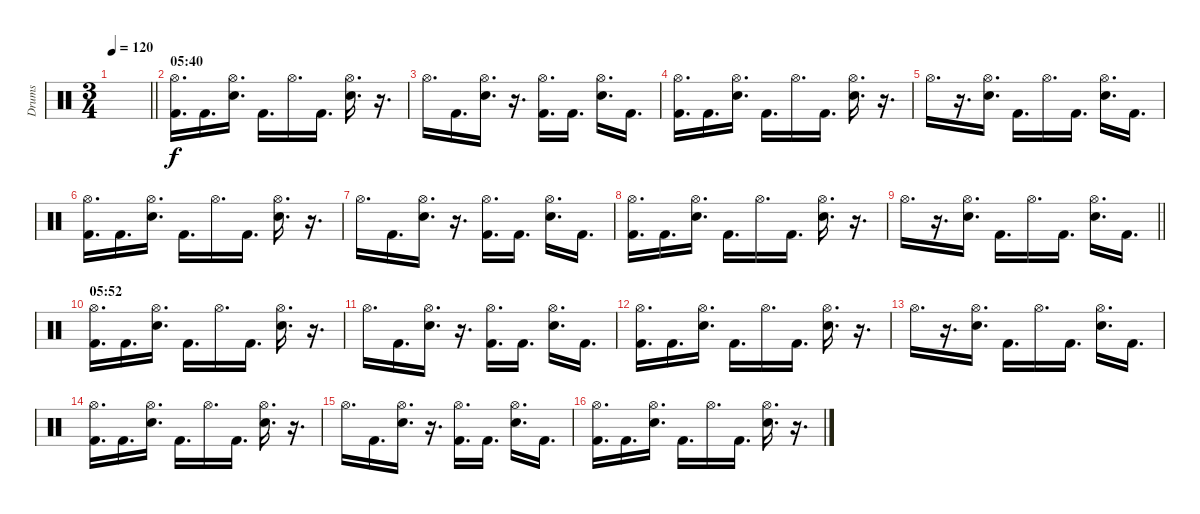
\track ("Drums" "Drums") {instrument percussion}
\staff {score}
\articulation defaults
\ts (3 4)
\tempo 120
\clef neutral
\barLineRight lightlight
\ks c
|
\section ("" "05:40")
("Hi-Hat (open)" "Kick (hit) 2").16{d} "Kick (hit) 2".16{d} ("Hi-Hat (open)" "Electric Snare (hit)").16{d} "Kick (hit) 2".16{d} "Hi-Hat (open)".16{d} "Kick (hit) 2".16{d} ("Hi-Hat (open)" "Electric Snare (hit)").16{d} r.16{d} |
"Hi-Hat (open)".16{d} "Kick (hit) 2".16{d} ("Hi-Hat (open)" "Electric Snare (hit)").16{d} r.16{d} ("Hi-Hat (open)" "Kick (hit) 2").16{d} "Kick (hit) 2".16{d} ("Hi-Hat (open)" "Electric Snare (hit)").16{d} "Kick (hit) 2".16{d} |
("Hi-Hat (open)" "Kick (hit) 2").16{d} "Kick (hit) 2".16{d} ("Hi-Hat (open)" "Electric Snare (hit)").16{d} "Kick (hit) 2".16{d} "Hi-Hat (open)".16{d} "Kick (hit) 2".16{d} ("Hi-Hat (open)" "Electric Snare (hit)").16{d} r.16{d} |
"Hi-Hat (open)".16{d} r.16{d} ("Hi-Hat (open)" "Electric Snare (hit)").16{d} "Kick (hit) 2".16{d} "Hi-Hat (open)".16{d} "Kick (hit) 2".16{d} ("Hi-Hat (open)" "Electric Snare (hit)").16{d} "Kick (hit) 2".16{d} |
("Hi-Hat (open)" "Kick (hit) 2").16{d} "Kick (hit) 2".16{d} ("Hi-Hat (open)" "Electric Snare (hit)").16{d} "Kick (hit) 2".16{d} "Hi-Hat (open)".16{d} "Kick (hit) 2".16{d} ("Hi-Hat (open)" "Electric Snare (hit)").16{d} r.16{d} |
"Hi-Hat (open)".16{d} "Kick (hit) 2".16{d} ("Hi-Hat (open)" "Electric Snare (hit)").16{d} r.16{d} ("Hi-Hat (open)" "Kick (hit) 2").16{d} "Kick (hit) 2".16{d} ("Hi-Hat (open)" "Electric Snare (hit)").16{d} "Kick (hit) 2".16{d} |
("Hi-Hat (open)" "Kick (hit) 2").16{d} "Kick (hit) 2".16{d} ("Hi-Hat (open)" "Electric Snare (hit)").16{d} "Kick (hit) 2".16{d} "Hi-Hat (open)".16{d} "Kick (hit) 2".16{d} ("Hi-Hat (open)" "Electric Snare (hit)").16{d} r.16{d} |
\barLineRight lightlight "Hi-Hat (open)".16{d}
r.16{d} ("Hi-Hat (open)" "Electric Snare (hit)").16{d} "Kick (hit) 2".16{d} "Hi-Hat (open)".16{d} "Kick (hit) 2".16{d} ("Hi-Hat (open)" "Electric Snare (hit)").16{d} "Kick (hit) 2".16{d} |
\section ("" "05:52")
("Hi-Hat (open)" "Kick (hit) 2").16{d} "Kick (hit) 2".16{d} ("Hi-Hat (open)" "Electric Snare (hit)").16{d} "Kick (hit) 2".16{d} "Hi-Hat (open)".16{d} "Kick (hit) 2".16{d} ("Hi-Hat (open)" "Electric Snare (hit)").16{d} r.16{d} |
"Hi-Hat (open)".16{d} "Kick (hit) 2".16{d} ("Hi-Hat (open)" "Electric Snare (hit)").16{d} r.16{d} ("Hi-Hat (open)" "Kick (hit) 2").16{d} "Kick (hit) 2".16{d} ("Hi-Hat (open)" "Electric Snare (hit)").16{d} "Kick (hit) 2".16{d} |
("Hi-Hat (open)" "Kick (hit) 2").16{d} "Kick (hit) 2".16{d} ("Hi-Hat (open)" "Electric Snare (hit)").16{d} "Kick (hit) 2".16{d} "Hi-Hat (open)".16{d} "Kick (hit) 2".16{d} ("Hi-Hat (open)" "Electric Snare (hit)").16{d} r.16{d} |
"Hi-Hat (open)".16{d} r.16{d} ("Hi-Hat (open)" "Electric Snare (hit)").16{d} "Kick (hit) 2".16{d} "Hi-Hat (open)".16{d} "Kick (hit) 2".16{d} ("Hi-Hat (open)" "Electric Snare (hit)").16{d} "Kick (hit) 2".16{d} |
("Hi-Hat (open)" "Kick (hit) 2").16{d} "Kick (hit) 2".16{d} ("Hi-Hat (open)" "Electric Snare (hit)").16{d} "Kick (hit) 2".16{d} "Hi-Hat (open)".16{d} "Kick (hit) 2".16{d} ("Hi-Hat (open)" "Electric Snare (hit)").16{d} r.16{d} |
"Hi-Hat (open)".16{d} "Kick (hit) 2".16{d} ("Hi-Hat (open)" "Electric Snare (hit)").16{d} r.16{d} ("Hi-Hat (open)" "Kick (hit) 2").16{d} "Kick (hit) 2".16{d} ("Hi-Hat (open)" "Electric Snare (hit)").16{d} "Kick (hit) 2".16{d} |
("Hi-Hat (open)" "Kick (hit) 2").16{d} "Kick (hit) 2".16{d} ("Hi-Hat (open)" "Electric Snare (hit)").16{d} "Kick (hit) 2".16{d} "Hi-Hat (open)".16{d} "Kick (hit) 2".16{d} ("Hi-Hat (open)" "Electric Snare (hit)").16{d} r.16{d}
